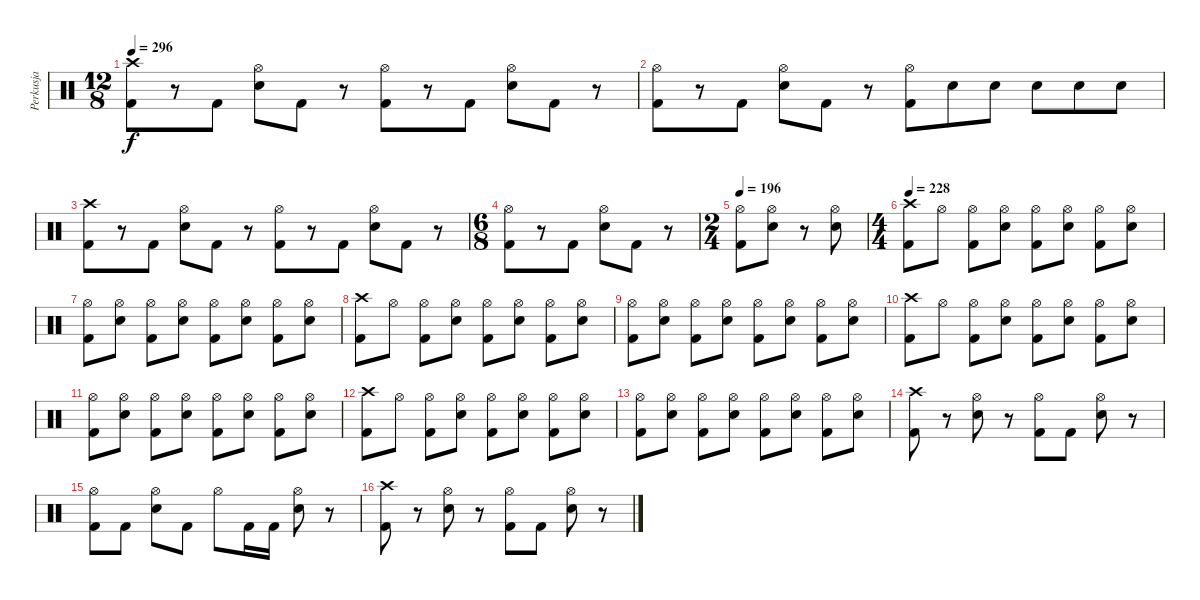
\track ("Perkusja" "Perkusja") {instrument percussion bank 10}
\staff {score}
\articulation defaults
\ts (12 8)
\tempo 296
\clef neutral
\ks c
("Crash high (hit)" "Kick (hit) 2").8{dy f} r.8 "Kick (hit) 2".8 ("Hi-Hat (open)" "Snare (hit) 2").8 "Kick (hit) 2".8 r.8 ("Hi-Hat (open)" "Kick (hit) 2").8 r.8 "Kick (hit) 2".8 ("Hi-Hat (open)" "Snare (hit) 2").8 "Kick (hit) 2".8 r.8 |
("Hi-Hat (open)" "Kick (hit) 2").8 r.8 "Kick (hit) 2".8 ("Hi-Hat (open)" "Snare (hit) 2").8 "Kick (hit) 2".8 r.8 ("Hi-Hat (open)" "Kick (hit) 2").8 "Snare (hit) 2".8 "Snare (hit) 2".8 "Snare (hit) 2".8 "Snare (hit) 2".8 "Snare (hit) 2".8 |
("Crash high (hit)" "Kick (hit) 2").8 r.8 "Kick (hit) 2".8 ("Hi-Hat (open)" "Snare (hit) 2").8 "Kick (hit) 2".8 r.8 ("Hi-Hat (open)" "Kick (hit) 2").8 r.8 "Kick (hit) 2".8 ("Hi-Hat (open)" "Snare (hit) 2").8 "Kick (hit) 2".8 r.8 |
\ts (6 8)
("Hi-Hat (open)" "Kick (hit) 2").8 r.8 "Kick (hit) 2".8 ("Hi-Hat (open)" "Snare (hit) 2").8 "Kick (hit) 2".8 r.8 |
\ts (2 4)
\tempo 196
("Hi-Hat (open)" "Kick (hit) 2").8 ("Hi-Hat (open)" "Snare (hit) 2").8 r.8 ("Hi-Hat (open)" "Snare (hit) 2").8 |
\ts (4 4)
\tempo 228
("Crash high (hit)" "Kick (hit) 2").8 "Hi-Hat (open)".8 ("Hi-Hat (open)" "Kick (hit) 2").8 ("Hi-Hat (open)" "Snare (hit) 2").8 ("Hi-Hat (open)" "Kick (hit) 2").8 ("Hi-Hat (open)" "Snare (hit) 2").8 ("Hi-Hat (open)" "Kick (hit) 2").8 ("Hi-Hat (open)" "Snare (hit) 2").8 |
("Hi-Hat (open)" "Kick (hit) 2").8 ("Hi-Hat (open)" "Snare (hit) 2").8 ("Hi-Hat (open)" "Kick (hit) 2").8 ("Hi-Hat (open)" "Snare (hit) 2").8 ("Hi-Hat (open)" "Kick (hit) 2").8 ("Hi-Hat (open)" "Snare (hit) 2").8 ("Hi-Hat (open)" "Kick (hit) 2").8 ("Hi-Hat (open)" "Snare (hit) 2").8 |
("Crash high (hit)" "Kick (hit) 2").8 "Hi-Hat (open)".8 ("Hi-Hat (open)" "Kick (hit) 2").8 ("Hi-Hat (open)" "Snare (hit) 2").8 ("Hi-Hat (open)" "Kick (hit) 2").8 ("Hi-Hat (open)" "Snare (hit) 2").8 ("Hi-Hat (open)" "Kick (hit) 2").8 ("Hi-Hat (open)" "Snare (hit) 2").8 |
("Hi-Hat (open)" "Kick (hit) 2").8 ("Hi-Hat (open)" "Snare (hit) 2").8 ("Hi-Hat (open)" "Kick (hit) 2").8 ("Hi-Hat (open)" "Snare (hit) 2").8 ("Hi-Hat (open)" "Kick (hit) 2").8 ("Hi-Hat (open)" "Snare (hit) 2").8 ("Hi-Hat (open)" "Kick (hit) 2").8 ("Hi-Hat (open)" "Snare (hit) 2").8 |
("Crash high (hit)" "Kick (hit) 2").8 "Hi-Hat (open)".8 ("Hi-Hat (open)" "Kick (hit) 2").8 ("Hi-Hat (open)" "Snare (hit) 2").8 ("Hi-Hat (open)" "Kick (hit) 2").8 ("Hi-Hat (open)" "Snare (hit) 2").8 ("Hi-Hat (open)" "Kick (hit) 2").8 ("Hi-Hat (open)" "Snare (hit) 2").8 |
("Hi-Hat (open)" "Kick (hit) 2").8 ("Hi-Hat (open)" "Snare (hit) 2").8 ("Hi-Hat (open)" "Kick (hit) 2").8 ("Hi-Hat (open)" "Snare (hit) 2").8 ("Hi-Hat (open)" "Kick (hit) 2").8 ("Hi-Hat (open)" "Snare (hit) 2").8 ("Hi-Hat (open)" "Kick (hit) 2").8 ("Hi-Hat (open)" "Snare (hit) 2").8 |
("Crash high (hit)" "Kick (hit) 2").8 "Hi-Hat (open)".8 ("Hi-Hat (open)" "Kick (hit) 2").8 ("Hi-Hat (open)" "Snare (hit) 2").8 ("Hi-Hat (open)" "Kick (hit) 2").8 ("Hi-Hat (open)" "Snare (hit) 2").8 ("Hi-Hat (open)" "Kick (hit) 2").8 ("Hi-Hat (open)" "Snare (hit) 2").8 |
("Hi-Hat (open)" "Kick (hit) 2").8 ("Hi-Hat (open)" "Snare (hit) 2").8 ("Hi-Hat (open)" "Kick (hit) 2").8 ("Hi-Hat (open)" "Snare (hit) 2").8 ("Hi-Hat (open)" "Kick (hit) 2").8 ("Hi-Hat (open)" "Snare (hit) 2").8 ("Hi-Hat (open)" "Kick (hit) 2").8 ("Hi-Hat (open)" "Snare (hit) 2").8 |
("Crash high (hit)" "Kick (hit) 2").8 r.8 ("Hi-Hat (open)" "Snare (hit) 2").8 r.8 ("Hi-Hat (open)" "Kick (hit) 2").8 "Kick (hit) 2".8 ("Hi-Hat (open)" "Snare (hit) 2").8 r.8 |
("Hi-Hat (open)" "Kick (hit) 2").8 "Kick (hit) 2".8 ("Hi-Hat (open)" "Snare (hit) 2").8 "Kick (hit) 2".8 "Hi-Hat (open)".8 "Kick (hit) 2".16 "Kick (hit) 2".16 ("Hi-Hat (open)" "Snare (hit) 2").8 r.8 |
("Crash high (hit)" "Kick (hit) 2").8 r.8 ("Hi-Hat (open)" "Snare (hit) 2").8 r.8 ("Hi-Hat (open)" "Kick (hit) 2").8 "Kick (hit) 2".8 ("Hi-Hat (open)" "Snare (hit) 2").8 r.8
